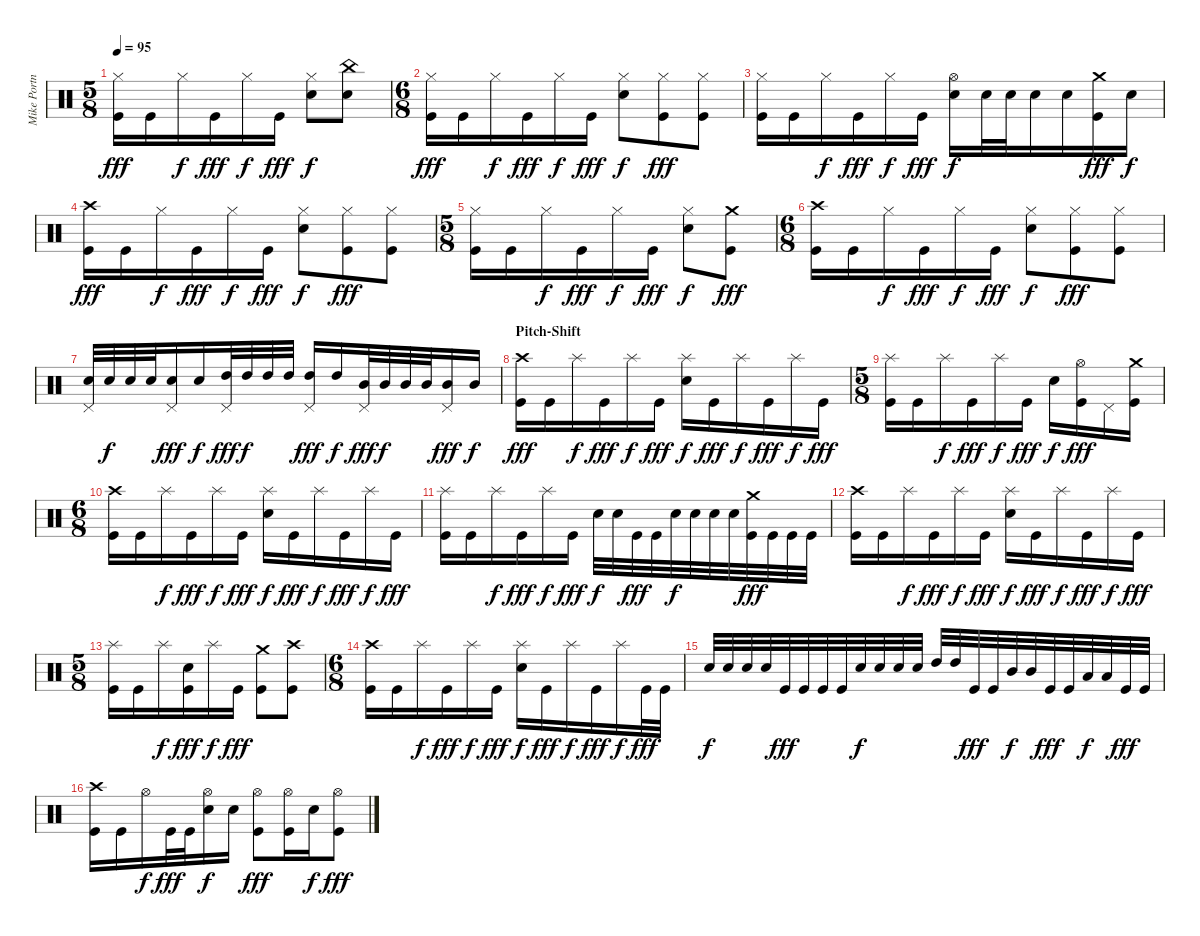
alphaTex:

\track ("Mike Portnoy" "Mike Portn") {instrument percussion}
\staff {score}
\articulation defaults
\ts (5 8)
\tempo 95
\clef neutral
\ks c
("Hi-Hat (closed)" "Kick (hit)").16{dy fff} "Kick (hit)".16 "Hi-Hat (closed)".16{dy f} "Kick (hit)".16{dy fff} "Hi-Hat (closed)".16{dy f} "Kick (hit)".16{dy fff} ("Hi-Hat (closed)" "Electric Snare (hit)").8{dy f} ("China (hit)" "Electric Snare (hit)").8 |
\ts (6 8)
("Hi-Hat (closed)" "Kick (hit)").16{dy fff} "Kick (hit)".16 "Hi-Hat (closed)".16{dy f} "Kick (hit)".16{dy fff} "Hi-Hat (closed)".16{dy f} "Kick (hit)".16{dy fff} ("Hi-Hat (closed)" "Electric Snare (hit)").8{dy f} ("Hi-Hat (closed)" "Kick (hit)").8{dy fff} ("Hi-Hat (closed)" "Kick (hit)").8 |
("Hi-Hat (closed)" "Kick (hit)").16 "Kick (hit)".16 "Hi-Hat (closed)".16{dy f} "Kick (hit)".16{dy fff} "Hi-Hat (closed)".16{dy f} "Kick (hit)".16{dy fff} ("Hi-Hat (open)" "Electric Snare (hit)").16{dy f} "Electric Snare (hit)".32 "Electric Snare (hit)".32 "Electric Snare (hit)".16 "Electric Snare (hit)".16 ("Crash medium (hit)" "Kick (hit)").16{dy fff} "Electric Snare (hit)".16{dy f} |
("Crash high (hit)" "Kick (hit)").16{dy fff} "Kick (hit)".16 "Hi-Hat (closed)".16{dy f} "Kick (hit)".16{dy fff} "Hi-Hat (closed)".16{dy f} "Kick (hit)".16{dy fff} ("Hi-Hat (closed)" "Electric Snare (hit)").8{dy f} ("Hi-Hat (closed)" "Kick (hit)").8{dy fff} ("Hi-Hat (closed)" "Kick (hit)").8 |
\ts (5 8)
("Hi-Hat (closed)" "Kick (hit)").16 "Kick (hit)".16 "Hi-Hat (closed)".16{dy f} "Kick (hit)".16{dy fff} "Hi-Hat (closed)".16{dy f} "Kick (hit)".16{dy fff} ("Hi-Hat (closed)" "Electric Snare (hit)").8{dy f} ("Crash medium (hit)" "Kick (hit)").8{dy fff} |
\ts (6 8)
("Crash high (hit)" "Kick (hit)").16 "Kick (hit)".16 "Hi-Hat (closed)".16{dy f} "Kick (hit)".16{dy fff} "Hi-Hat (closed)".16{dy f} "Kick (hit)".16{dy fff} ("Hi-Hat (closed)" "Electric Snare (hit)").8{dy f} ("Hi-Hat (closed)" "Kick (hit)").8{dy fff} ("Hi-Hat (closed)" "Kick (hit)").8 |
("Electric Snare (hit)" "Pedal Hi-Hat (hit)").32 "Electric Snare (hit)".32{dy f} "Electric Snare (hit)".32 "Electric Snare (hit)".32 ("Electric Snare (hit)" "Pedal Hi-Hat (hit)").16{dy fff} "Electric Snare (hit)".16{dy f} ("High Tom (hit)" "Pedal Hi-Hat (hit)").32{dy fff} "High Tom (hit)".32{dy f} "High Tom (hit)".32 "High Tom (hit)".32 ("High Tom (hit)" "Pedal Hi-Hat (hit)").16{dy fff} "High Tom (hit)".16{dy f} ("Mid Tom (hit)" "Pedal Hi-Hat (hit)").32{dy fff} "Mid Tom (hit)".32{dy f} "Mid Tom (hit)".32 "Mid Tom (hit)".32 ("Mid Tom (hit)" "Pedal Hi-Hat (hit)").16{dy fff} "Mid Tom (hit)".16{dy f} |
\section ("" "Pitch-Shift")
("Crash high (hit)" "Kick (hit)").16{dy fff} "Kick (hit)".16 "Splash (hit)".16{dy f} "Kick (hit)".16{dy fff} "Splash (hit)".16{dy f} "Kick (hit)".16{dy fff} ("Splash (hit)" "Electric Snare (hit)").16{dy f} "Kick (hit)".16{dy fff} "Splash (hit)".16{dy f} "Kick (hit)".16{dy fff} "Splash (hit)".16{dy f} "Kick (hit)".16{dy fff} |
\ts (5 8)
("Splash (hit)" "Kick (hit)").16 "Kick (hit)".16 "Splash (hit)".16{dy f} "Kick (hit)".16{dy fff} "Splash (hit)".16{dy f} "Kick (hit)".16{dy fff} "Electric Snare (hit)".16{dy f} ("Hi-Hat (open)" "Kick (hit)").16{dy fff} "Pedal Hi-Hat (hit)".16 ("Crash medium (hit)" "Kick (hit)").16 |
\ts (6 8)
("Crash high (hit)" "Kick (hit)").16 "Kick (hit)".16 "Splash (hit)".16{dy f} "Kick (hit)".16{dy fff} "Splash (hit)".16{dy f} "Kick (hit)".16{dy fff} ("Splash (hit)" "Electric Snare (hit)").16{dy f} "Kick (hit)".16{dy fff} "Splash (hit)".16{dy f} "Kick (hit)".16{dy fff} "Splash (hit)".16{dy f} "Kick (hit)".16{dy fff} |
("Splash (hit)" "Kick (hit)").16 "Kick (hit)".16 "Splash (hit)".16{dy f} "Kick (hit)".16{dy fff} "Splash (hit)".16{dy f} "Kick (hit)".16{dy fff} "Electric Snare (hit)".32{dy f} "Electric Snare (hit)".32 "Kick (hit)".32{dy fff} "Kick (hit)".32 "Electric Snare (hit)".32{dy f} "Electric Snare (hit)".32 "Electric Snare (hit)".32 "Electric Snare (hit)".32 ("Crash medium (hit)" "Kick (hit)").32{dy fff} "Kick (hit)".32 "Kick (hit)".32 "Kick (hit)".32 |
("Crash high (hit)" "Kick (hit)").16 "Kick (hit)".16 "Splash (hit)".16{dy f} "Kick (hit)".16{dy fff} "Splash (hit)".16{dy f} "Kick (hit)".16{dy fff} ("Splash (hit)" "Electric Snare (hit)").16{dy f} "Kick (hit)".16{dy fff} "Splash (hit)".16{dy f} "Kick (hit)".16{dy fff} "Splash (hit)".16{dy f} "Kick (hit)".16{dy fff} |
\ts (5 8)
("Splash (hit)" "Kick (hit)").16 "Kick (hit)".16 "Splash (hit)".16{dy f} ("Electric Snare (hit)" "Kick (hit)").16{dy fff} "Splash (hit)".16{dy f} "Kick (hit)".16{dy fff} ("Crash medium (hit)" "Kick (hit)").8 ("Crash high (hit)" "Kick (hit)").8 |
\ts (6 8)
("Crash high (hit)" "Kick (hit)").16 "Kick (hit)".16 "Splash (hit)".16{dy f} "Kick (hit)".16{dy fff} "Splash (hit)".16{dy f} "Kick (hit)".16{dy fff} ("Splash (hit)" "Electric Snare (hit)").16{dy f} "Kick (hit)".16{dy fff} "Splash (hit)".16{dy f} "Kick (hit)".16{dy fff} "Splash (hit)".16{dy f} "Kick (hit)".32{dy fff} "Kick (hit)".32 |
"Electric Snare (hit)".32{dy f} "Electric Snare (hit)".32 "Electric Snare (hit)".32 "Electric Snare (hit)".32 "Kick (hit)".32{dy fff} "Kick (hit)".32 "Kick (hit)".32 "Kick (hit)".32 "Electric Snare (hit)".32{dy f} "Electric Snare (hit)".32 "Electric Snare (hit)".32 "Electric Snare (hit)".32 "High Tom (hit)".32 "High Tom (hit)".32 "Kick (hit)".32{dy fff} "Kick (hit)".32 "Mid Tom (hit)".32{dy f} "Mid Tom (hit)".32 "Kick (hit)".32{dy fff} "Kick (hit)".32 "Low Tom (hit)".32{dy f} "Low Tom (hit)".32 "Kick (hit)".32{dy fff} "Kick (hit)".32 |
("Crash high (hit)" "Kick (hit)").16 "Kick (hit)".16 "Hi-Hat (open)".16{dy f} "Kick (hit)".32{dy fff} "Kick (hit)".32 ("Hi-Hat (open)" "Electric Snare (hit)").16{dy f} "Electric Snare (hit)".16 ("Hi-Hat (open)" "Kick (hit)").8{dy fff} ("Hi-Hat (open)" "Kick (hit)").16 "Electric Snare (hit)".16{dy f} ("Hi-Hat (open)" "Kick (hit)").8{dy fff}
